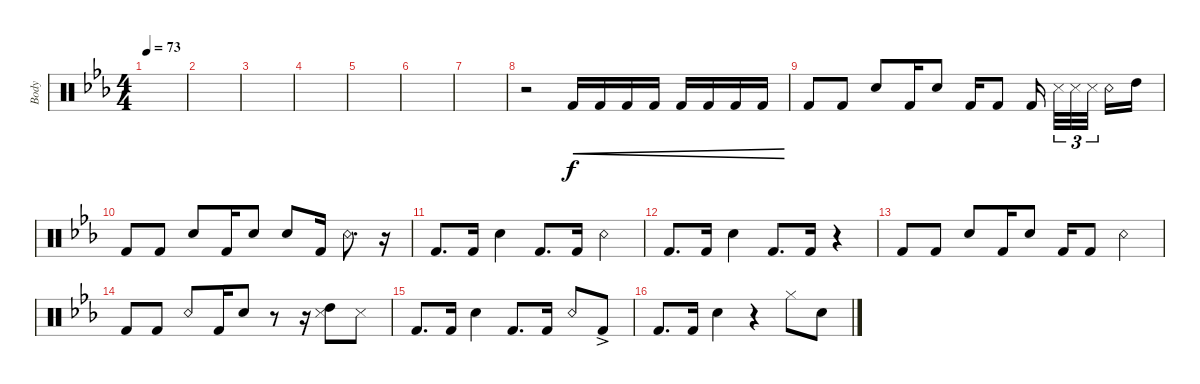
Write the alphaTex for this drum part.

\defaultSystemsLayout 2
\bracketExtendMode groupsimilarinstruments
\otherSystemsTrackNameOrientation horizontal
\track ("Drumkit" "Body ") {instrument percussion}
\staff {score}
\articulation defaults
\ts (4 4)
\scale
1.09291
\tempo 73
\accidentals auto
\clef neutral
\ottava regular
\simile none
\scale
0.263889
\ks cminor
|
\scale
0.907085
\scale
0.333333 |
\scale
1.06459
\scale
0.333333 |
\scale
0.935414
\scale
0.333333 |
\scale
1.06459
\scale
0.333333 |
\scale
0.935414
\scale
0.333333 |
\scale
1.05623
\scale
0.333333 |
\scale
0.94377
\scale
0.333333 r.2{beam Down} "Kick (hit) 2"{acc forcenatural}.16{cre beam Up} "Kick (hit) 2"{acc forcenatural}.16{cre beam Up} "Kick (hit) 2"{acc forcenatural}.16{cre beam Up} "Kick (hit) 2"{acc forcenatural}.16{cre beam Up} "Kick (hit) 2"{acc forcenatural}.16{cre beam Up} "Kick (hit) 2"{acc forcenatural}.16{cre beam Up} "Kick (hit) 2"{acc forcenatural}.16{cre beam Up} "Kick (hit) 2"{acc forcenatural}.16{cre beam Up} |
\scale
1.06459
\scale
0.333333 "Kick (hit) 2"{acc forcenatural}.8{beam Up} "Kick (hit) 2"{acc forcenatural}.8{beam Up} "Snare (hit) 2"{acc forcenatural}.8{beam Up} "Kick (hit) 2"{acc forcenatural}.16{beam Up} "Snare (hit) 2"{acc forcenatural}.8{beam Up} "Kick (hit) 2"{acc forcenatural}.16{beam Up} "Kick (hit) 2"{acc forcenatural}.8{beam Up} "Kick (hit) 2"{acc forcenatural}.16{beam Up} "Snare (side stick) 3"{acc forcenatural}.32{tu (3 2) beam Down} "Snare (side stick) 3"{acc forcenatural}.32{tu (3 2) beam Down} "Snare (side stick) 3"{acc forcenatural}.32{tu (3 2) beam Down} "Snare (rim shot)"{acc forcenatural}.16{beam Down} "High Tom (hit)"{acc forcenatural}.16{beam Down} |
\scale
0.935414
\scale
0.333333 "Kick (hit) 2"{acc forcenatural}.8{beam Up} "Kick (hit) 2"{acc forcenatural}.8{beam Up} "Snare (hit) 2"{acc forcenatural}.8{beam Up} "Kick (hit) 2"{acc forcenatural}.16{beam Up} "Snare (hit) 2"{acc forcenatural}.8{beam Up} "Snare (hit) 2"{acc forcenatural}.8{beam Up} "Kick (hit) 2"{acc forcenatural}.16{beam Up} "Snare (rim shot)"{acc forcenatural}.8{d beam Down} r.16{beam Down} |
\scale
1.06459 "Kick (hit) 2"{acc forcenatural}.8{d beam Up} "Kick (hit) 2"{acc forcenatural}.16{beam Up} "Snare (hit) 2"{acc forcenatural}.4{beam Down} "Kick (hit) 2"{acc forcenatural}.8{d beam Up} "Kick (hit) 2"{acc forcenatural}.16{beam Up} "Snare (rim shot)"{acc forcenatural}.4{beam Down} |
\scale
0.935414 "Kick (hit) 2"{acc forcenatural}.8{d beam Up} "Kick (hit) 2"{acc forcenatural}.16{beam Up} "Snare (hit) 2"{acc forcenatural}.4{beam Down} "Kick (hit) 2"{acc forcenatural}.8{d beam Up} "Kick (hit) 2"{acc forcenatural}.16{beam Up} r.4{beam Up} |
\scale
1.06459 "Kick (hit) 2"{acc forcenatural}.8{beam Up} "Kick (hit) 2"{acc forcenatural}.8{beam Up} "Snare (hit) 2"{acc forcenatural}.8{beam Up} "Kick (hit) 2"{acc forcenatural}.16{beam Up} "Snare (hit) 2"{acc forcenatural}.8{beam Up} "Kick (hit) 2"{acc forcenatural}.16{beam Up} "Kick (hit) 2"{acc forcenatural}.8{beam Up} "Snare (rim shot)"{acc forcenatural}.4{beam Down} |
\scale
0.935414 "Kick (hit) 2"{acc forcenatural}.8{beam Up} "Kick (hit) 2"{acc forcenatural}.8{beam Up} "Snare (rim shot)"{acc forcenatural}.8{beam Up} "Kick (hit) 2"{acc forcenatural}.16{beam Up} "Snare (hit) 2"{acc forcenatural}.8{beam Up} r.8{beam Up} r.16{beam Up} ("High Tom (hit)"{acc forcenatural} "Snare (side stick) 3"{acc forcenatural}).8{beam Down} "Snare (side stick) 3"{acc forcenatural}.8{beam Down} |
\scale
1.06459 "Kick (hit) 2"{acc forcenatural}.8{d beam Up} "Kick (hit) 2"{acc forcenatural}.16{beam Up} "Snare (hit) 2"{acc forcenatural}.4{beam Down} "Kick (hit) 2"{acc forcenatural}.8{d beam Up} "Kick (hit) 2"{acc forcenatural}.16{beam Up} "Snare (rim shot)"{acc forcenatural}.8{beam Up} "Kick (hit) 2"{ac acc forcenatural}.8{beam Up} |
\scale
0.935414 "Kick (hit) 2"{acc forcenatural}.8{d beam Up} "Kick (hit) 2"{acc forcenatural}.16{beam Up} "Snare (hit) 2"{acc forcenatural}.4{beam Down} r.4{beam Down} "Hi-Hat (closed)"{acc forcenatural}.8{beam Down} "Snare (hit) 2"{acc forcenatural}.8{beam Down}
